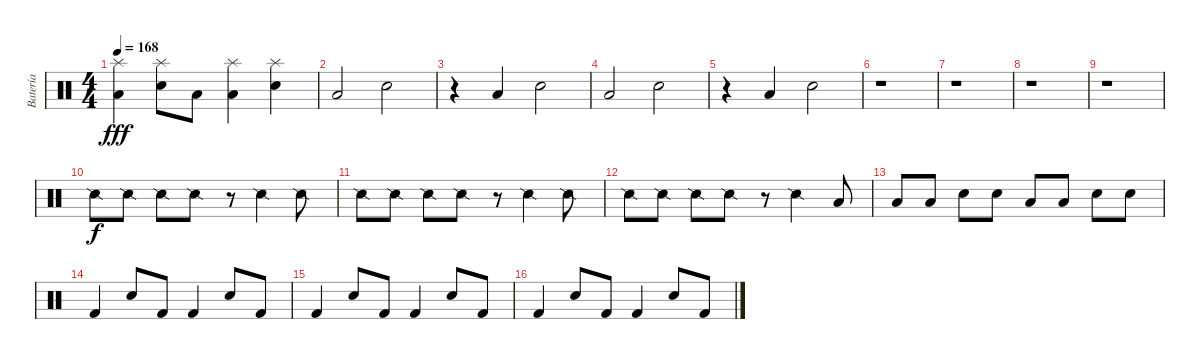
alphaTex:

\track ("Batería" "Batería") {instrument percussion}
\staff {score}
\articulation defaults
\ts (4 4)
\tempo 168
\clef neutral
\ks c
("Splash (hit)" "Low Floor Tom (hit)").4{dy fff} ("Splash (hit)" "Electric Snare (hit)").8 "Low Floor Tom (hit)".8 ("Splash (hit)" "Low Floor Tom (hit)").4 ("Splash (hit)" "Electric Snare (hit)").4 |
"Low Floor Tom (hit)".2 "Snare (hit) 2".2 |
r.4 "Low Floor Tom (hit)".4 "Snare (hit) 2".2 |
"Low Floor Tom (hit)".2 "Snare (hit) 2".2 |
r.4 "Low Floor Tom (hit)".4 "Snare (hit) 2".2 |
r.1 |
r.1 |
r.1 |
r.1 |
"Snare (side stick) 2".8{dy f} "Snare (side stick) 2".8 "Snare (side stick) 2".8 "Snare (side stick) 2".8 r.8 "Snare (side stick) 2".4 "Snare (side stick) 2".8 |
"Snare (side stick) 2".8 "Snare (side stick) 2".8 "Snare (side stick) 2".8 "Snare (side stick) 2".8 r.8 "Snare (side stick) 2".4 "Snare (side stick) 2".8 |
"Snare (side stick) 2".8 "Snare (side stick) 2".8 "Snare (side stick) 2".8 "Snare (side stick) 2".8 r.8 "Snare (side stick) 2".4 "Low Floor Tom (hit)".8 |
"Low Floor Tom (hit)".8 "Low Floor Tom (hit)".8 "Electric Snare (hit)".8 "Electric Snare (hit)".8 "Low Floor Tom (hit)".8 "Low Floor Tom (hit)".8 "Electric Snare (hit)".8 "Electric Snare (hit)".8 |
"Kick (hit) 2".4 "Electric Snare (hit)".8 "Kick (hit) 2".8 "Kick (hit) 2".4 "Electric Snare (hit)".8 "Kick (hit) 2".8 |
"Kick (hit) 2".4 "Electric Snare (hit)".8 "Kick (hit) 2".8 "Kick (hit) 2".4 "Electric Snare (hit)".8 "Kick (hit) 2".8 |
"Kick (hit) 2".4 "Electric Snare (hit)".8 "Kick (hit) 2".8 "Kick (hit) 2".4 "Electric Snare (hit)".8 "Kick (hit) 2".8
